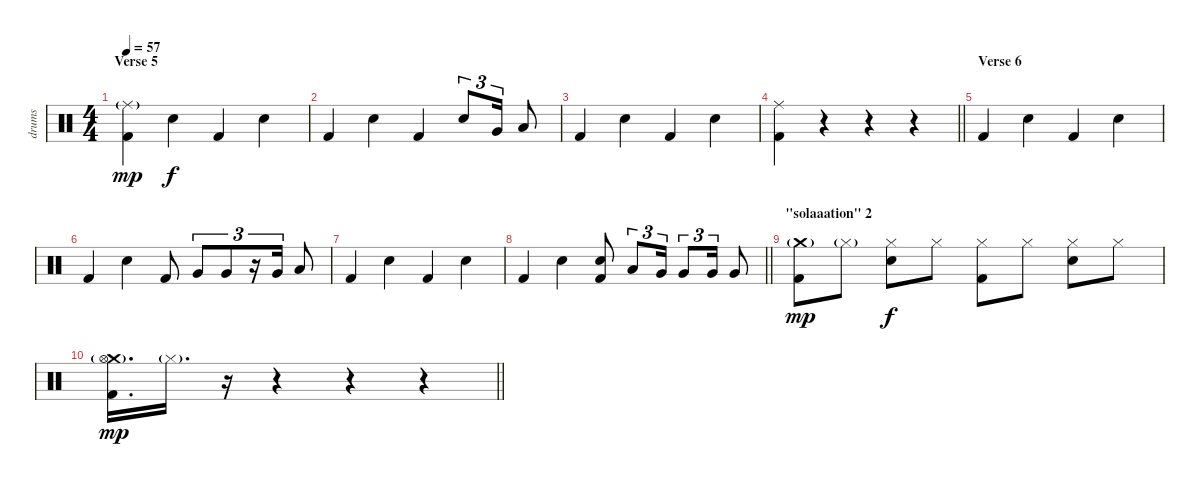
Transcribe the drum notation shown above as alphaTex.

\track ("drums" "drums") {instrument percussion}
\staff {score}
\articulation defaults
\ts (4 4)
\section ("" "Verse 5")
\tempo 57
\clef neutral
\ks c
("Ride (middle)"{g} "Kick (hit) 2").4{dy mp} "Electric Snare (hit)".4{dy f} "Kick (hit) 2".4 "Electric Snare (hit)".4 |
"Kick (hit) 2".4 "Electric Snare (hit)".4 "Kick (hit) 2".4 "Electric Snare (hit)".8{tu (3 2)} "Very Low Tom (hit)".16{tu (3 2)} "Low Tom (hit)".8 |
"Kick (hit) 2".4 "Electric Snare (hit)".4 "Kick (hit) 2".4 "Electric Snare (hit)".4 |
\barLineRight lightlight
("Ride (middle)" "Kick (hit) 2").4 r.4 r.4 r.4 |
\section ("" "Verse 6")
"Kick (hit) 2".4 "Electric Snare (hit)".4 "Kick (hit) 2".4 "Electric Snare (hit)".4 |
"Kick (hit) 2".4 "Electric Snare (hit)".4 "Kick (hit) 2".8 "Very Low Tom (hit)".8{tu (3 2)} "Very Low Tom (hit)".8{tu (3 2)} r.16{tu (3 2)} "Very Low Tom (hit)".16{tu (3 2)} "Low Tom (hit)".8 |
"Kick (hit) 2".4 "Electric Snare (hit)".4 "Kick (hit) 2".4 "Electric Snare (hit)".4 |
\barLineRight lightlight "Kick (hit) 2".4 "Electric Snare (hit)".4
("Electric Snare (hit)" "Kick (hit) 2").8 "Low Tom (hit)".8{tu (3 2)} "Very Low Tom (hit)".16{tu (3 2)} "Very Low Tom (hit)".8{tu (3 2)} "Very Low Tom (hit)".16{tu (3 2)} "Very Low Tom (hit)".8 |
\section ("" "\"solaaation\" 2")
("Crash medium (hit)"{g} "Kick (hit) 2").8{dy mp} "Hi-Hat (closed)"{g}.8 ("Hi-Hat (closed)" "Electric Snare (hit)").8{dy f} "Hi-Hat (closed)".8 ("Hi-Hat (closed)" "Kick (hit) 2").8 "Hi-Hat (closed)".8 ("Hi-Hat (closed)" "Electric Snare (hit)").8 "Hi-Hat (closed)".8 |
\barLineRight lightlight
("Crash medium (hit)"{g} "Hi-Hat (open)" "Kick (hit) 2").16{d dy mp} "Hi-Hat (closed)"{g}.16{d} r.16 r.4 r.4 r.4
